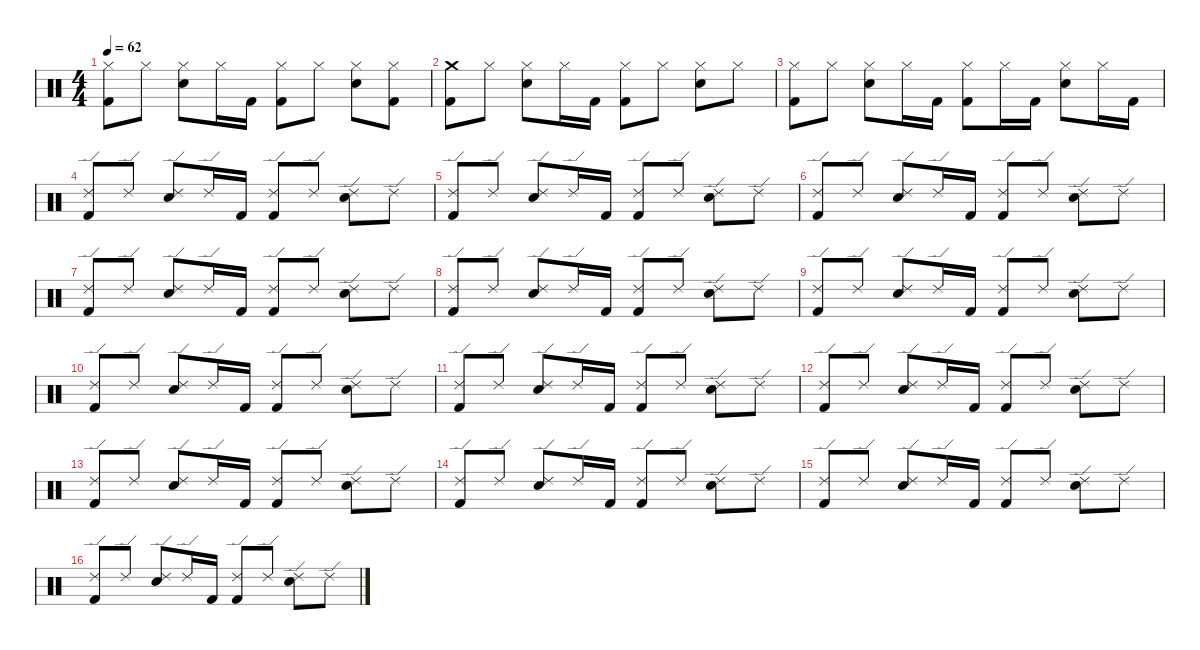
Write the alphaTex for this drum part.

\defaultSystemsLayout 4
\hideDynamics
\bracketExtendMode nobrackets
\singleTrackTrackNamePolicy hidden
\multiTrackTrackNamePolicy hidden
\firstSystemTrackNameMode fullname
\otherSystemsTrackNameOrientation horizontal
\track ("Drums" "drm.") {defaultSystemsLayout 4 instrument percussion}
\staff {score}
\articulation defaults
\ts (4 4)
\tempo 62
\clef neutral
\ks c
("Hi-Hat (closed)" "Kick (hit) 2").8{dy f beam Down} "Hi-Hat (closed)".8{beam Down} ("Hi-Hat (closed)" "Snare (hit) 2").8{beam Down} "Hi-Hat (closed)".16{beam Down} "Kick (hit) 2".16{beam Down} ("Hi-Hat (closed)" "Kick (hit) 2").8{beam Down} "Hi-Hat (closed)".8{beam Down} ("Hi-Hat (closed)" "Snare (hit) 2").8{beam Down} ("Hi-Hat (closed)" "Kick (hit) 2").8{beam Down} |
("Crash medium (hit)" "Kick (hit) 2").8{beam Down} "Hi-Hat (closed)".8{beam Down} ("Hi-Hat (closed)" "Snare (hit) 2").8{beam Down} "Hi-Hat (closed)".16{beam Down} "Kick (hit) 2".16{beam Down} ("Hi-Hat (closed)" "Kick (hit) 2").8{beam Down} "Hi-Hat (closed)".8{beam Down} ("Hi-Hat (closed)" "Snare (hit) 2").8{beam Down} "Hi-Hat (closed)".8{beam Down} |
("Hi-Hat (closed)" "Kick (hit) 2").8{beam Down} "Hi-Hat (closed)".8{beam Down} ("Hi-Hat (closed)" "Snare (hit) 2").8{beam Down} "Hi-Hat (closed)".16{beam Down} "Kick (hit) 2".16{beam Down} ("Hi-Hat (closed)" "Kick (hit) 2").8{beam Down} "Hi-Hat (closed)".16{beam Down} "Kick (hit) 2".16{beam Down} ("Hi-Hat (closed)" "Snare (hit) 2").8{beam Down} "Hi-Hat (closed)".16{beam Down} "Kick (hit) 2".16{beam Down} |
("Ride (edge) 2" "Kick (hit) 2").8{beam Up} "Ride (edge) 2".8{beam Up} ("Ride (edge) 2" "Snare (hit) 2").8{beam Up} "Ride (edge) 2".16{beam Up} "Kick (hit) 2".16{beam Up} ("Ride (edge) 2" "Kick (hit) 2").8{beam Up} "Ride (edge) 2".8{beam Up} ("Ride (edge) 2" "Snare (hit) 2").8{beam Down} "Ride (edge) 2".8{beam Down} |
("Ride (edge) 2" "Kick (hit) 2").8{beam Up} "Ride (edge) 2".8{beam Up} ("Ride (edge) 2" "Snare (hit) 2").8{beam Up} "Ride (edge) 2".16{beam Up} "Kick (hit) 2".16{beam Up} ("Ride (edge) 2" "Kick (hit) 2").8{beam Up} "Ride (edge) 2".8{beam Up} ("Ride (edge) 2" "Snare (hit) 2").8{beam Down} "Ride (edge) 2".8{beam Down} |
("Ride (edge) 2" "Kick (hit) 2").8{beam Up} "Ride (edge) 2".8{beam Up} ("Ride (edge) 2" "Snare (hit) 2").8{beam Up} "Ride (edge) 2".16{beam Up} "Kick (hit) 2".16{beam Up} ("Ride (edge) 2" "Kick (hit) 2").8{beam Up} "Ride (edge) 2".8{beam Up} ("Ride (edge) 2" "Snare (hit) 2").8{beam Down} "Ride (edge) 2".8{beam Down} |
("Ride (edge) 2" "Kick (hit) 2").8{beam Up} "Ride (edge) 2".8{beam Up} ("Ride (edge) 2" "Snare (hit) 2").8{beam Up} "Ride (edge) 2".16{beam Up} "Kick (hit) 2".16{beam Up} ("Ride (edge) 2" "Kick (hit) 2").8{beam Up} "Ride (edge) 2".8{beam Up} ("Ride (edge) 2" "Snare (hit) 2").8{beam Down} "Ride (edge) 2".8{beam Down} |
("Ride (edge) 2" "Kick (hit) 2").8{beam Up} "Ride (edge) 2".8{beam Up} ("Ride (edge) 2" "Snare (hit) 2").8{beam Up} "Ride (edge) 2".16{beam Up} "Kick (hit) 2".16{beam Up} ("Ride (edge) 2" "Kick (hit) 2").8{beam Up} "Ride (edge) 2".8{beam Up} ("Ride (edge) 2" "Snare (hit) 2").8{beam Down} "Ride (edge) 2".8{beam Down} |
("Ride (edge) 2" "Kick (hit) 2").8{beam Up} "Ride (edge) 2".8{beam Up} ("Ride (edge) 2" "Snare (hit) 2").8{beam Up} "Ride (edge) 2".16{beam Up} "Kick (hit) 2".16{beam Up} ("Ride (edge) 2" "Kick (hit) 2").8{beam Up} "Ride (edge) 2".8{beam Up} ("Ride (edge) 2" "Snare (hit) 2").8{beam Down} "Ride (edge) 2".8{beam Down} |
("Ride (edge) 2" "Kick (hit) 2").8{beam Up} "Ride (edge) 2".8{beam Up} ("Ride (edge) 2" "Snare (hit) 2").8{beam Up} "Ride (edge) 2".16{beam Up} "Kick (hit) 2".16{beam Up} ("Ride (edge) 2" "Kick (hit) 2").8{beam Up} "Ride (edge) 2".8{beam Up} ("Ride (edge) 2" "Snare (hit) 2").8{beam Down} "Ride (edge) 2".8{beam Down} |
("Ride (edge) 2" "Kick (hit) 2").8{beam Up} "Ride (edge) 2".8{beam Up} ("Ride (edge) 2" "Snare (hit) 2").8{beam Up} "Ride (edge) 2".16{beam Up} "Kick (hit) 2".16{beam Up} ("Ride (edge) 2" "Kick (hit) 2").8{beam Up} "Ride (edge) 2".8{beam Up} ("Ride (edge) 2" "Snare (hit) 2").8{beam Down} "Ride (edge) 2".8{beam Down} |
("Ride (edge) 2" "Kick (hit) 2").8{beam Up} "Ride (edge) 2".8{beam Up} ("Ride (edge) 2" "Snare (hit) 2").8{beam Up} "Ride (edge) 2".16{beam Up} "Kick (hit) 2".16{beam Up} ("Ride (edge) 2" "Kick (hit) 2").8{beam Up} "Ride (edge) 2".8{beam Up} ("Ride (edge) 2" "Snare (hit) 2").8{beam Down} "Ride (edge) 2".8{beam Down} |
("Ride (edge) 2" "Kick (hit) 2").8{beam Up} "Ride (edge) 2".8{beam Up} ("Ride (edge) 2" "Snare (hit) 2").8{beam Up} "Ride (edge) 2".16{beam Up} "Kick (hit) 2".16{beam Up} ("Ride (edge) 2" "Kick (hit) 2").8{beam Up} "Ride (edge) 2".8{beam Up} ("Ride (edge) 2" "Snare (hit) 2").8{beam Down} "Ride (edge) 2".8{beam Down} |
("Ride (edge) 2" "Kick (hit) 2").8{beam Up} "Ride (edge) 2".8{beam Up} ("Ride (edge) 2" "Snare (hit) 2").8{beam Up} "Ride (edge) 2".16{beam Up} "Kick (hit) 2".16{beam Up} ("Ride (edge) 2" "Kick (hit) 2").8{beam Up} "Ride (edge) 2".8{beam Up} ("Ride (edge) 2" "Snare (hit) 2").8{beam Down} "Ride (edge) 2".8{beam Down} |
("Ride (edge) 2" "Kick (hit) 2").8{beam Up} "Ride (edge) 2".8{beam Up} ("Ride (edge) 2" "Snare (hit) 2").8{beam Up} "Ride (edge) 2".16{beam Up} "Kick (hit) 2".16{beam Up} ("Ride (edge) 2" "Kick (hit) 2").8{beam Up} "Ride (edge) 2".8{beam Up} ("Ride (edge) 2" "Snare (hit) 2").8{beam Down} "Ride (edge) 2".8{beam Down} |
("Ride (edge) 2" "Kick (hit) 2").8{beam Up} "Ride (edge) 2".8{beam Up} ("Ride (edge) 2" "Snare (hit) 2").8{beam Up} "Ride (edge) 2".16{beam Up} "Kick (hit) 2".16{beam Up} ("Ride (edge) 2" "Kick (hit) 2").8{beam Up} "Ride (edge) 2".8{beam Up} ("Ride (edge) 2" "Snare (hit) 2").8{beam Down} "Ride (edge) 2".8{beam Down}
